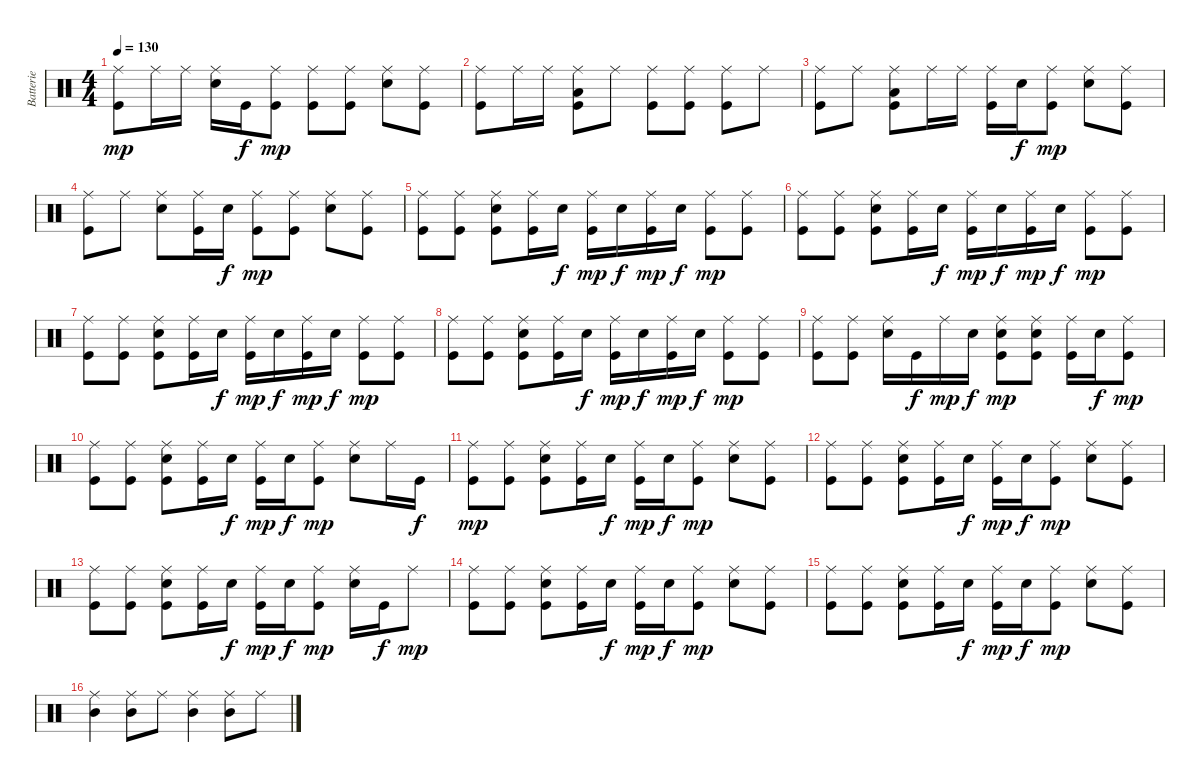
\track ("Batterie" "Batterie") {instrument percussion}
\staff {score}
\articulation defaults
\ts (4 4)
\tempo 130
\clef neutral
\ks c
("Ride (middle)" "Kick (hit)").8{dy mp} "Ride (middle)".16 "Ride (middle)".16 ("Ride (middle)" "Snare (hit) 2").16 "Kick (hit)".16{dy f} ("Ride (middle)" "Kick (hit)").8{dy mp} ("Ride (middle)" "Kick (hit)").8 ("Ride (middle)" "Kick (hit)").8 ("Ride (middle)" "Snare (hit) 2").8 ("Ride (middle)" "Kick (hit)").8 |
("Ride (middle)" "Kick (hit)").8 "Ride (middle)".16 "Ride (middle)".16 ("Ride (middle)" "Low Tom (hit)" "Kick (hit)").8 "Ride (middle)".8 ("Ride (middle)" "Kick (hit)").8 ("Ride (middle)" "Kick (hit)").8 ("Ride (middle)" "Kick (hit)").8 "Ride (middle)".8 |
("Ride (middle)" "Kick (hit)").8 "Ride (middle)".8 ("Ride (middle)" "Low Tom (hit)" "Kick (hit)").8 "Ride (middle)".16 "Ride (middle)".16 ("Ride (middle)" "Kick (hit)").16 "Snare (hit) 2".16{dy f} ("Ride (middle)" "Kick (hit)").8{dy mp} ("Ride (middle)" "Snare (hit) 2").8 ("Ride (middle)" "Kick (hit)").8 |
("Ride (middle)" "Kick (hit)").8 "Ride (middle)".8 ("Ride (middle)" "Snare (hit) 2").8 ("Ride (middle)" "Kick (hit)").16 "Snare (hit) 2".16{dy f} ("Ride (middle)" "Kick (hit)").8{dy mp} ("Ride (middle)" "Kick (hit)").8 ("Ride (middle)" "Snare (hit) 2").8 ("Ride (middle)" "Kick (hit)").8 |
("Ride (middle)" "Kick (hit)").8 ("Ride (middle)" "Kick (hit)").8 ("Ride (middle)" "Snare (hit) 2" "Kick (hit)").8 ("Ride (middle)" "Kick (hit)").16 "Snare (hit) 2".16{dy f} ("Ride (middle)" "Kick (hit)").16{dy mp} "Snare (hit) 2".16{dy f} ("Ride (middle)" "Kick (hit)").16{dy mp} "Snare (hit) 2".16{dy f} ("Ride (middle)" "Kick (hit)").8{dy mp} ("Ride (middle)" "Kick (hit)").8 |
("Ride (middle)" "Kick (hit)").8 ("Ride (middle)" "Kick (hit)").8 ("Ride (middle)" "Snare (hit) 2" "Kick (hit)").8 ("Ride (middle)" "Kick (hit)").16 "Snare (hit) 2".16{dy f} ("Ride (middle)" "Kick (hit)").16{dy mp} "Snare (hit) 2".16{dy f} ("Ride (middle)" "Kick (hit)").16{dy mp} "Snare (hit) 2".16{dy f} ("Ride (middle)" "Kick (hit)").8{dy mp} ("Ride (middle)" "Kick (hit)").8 |
("Ride (middle)" "Kick (hit)").8 ("Ride (middle)" "Kick (hit)").8 ("Ride (middle)" "Snare (hit) 2" "Kick (hit)").8 ("Ride (middle)" "Kick (hit)").16 "Snare (hit) 2".16{dy f} ("Ride (middle)" "Kick (hit)").16{dy mp} "Snare (hit) 2".16{dy f} ("Ride (middle)" "Kick (hit)").16{dy mp} "Snare (hit) 2".16{dy f} ("Ride (middle)" "Kick (hit)").8{dy mp} ("Ride (middle)" "Kick (hit)").8 |
("Ride (middle)" "Kick (hit)").8 ("Ride (middle)" "Kick (hit)").8 ("Ride (middle)" "Snare (hit) 2" "Kick (hit)").8 ("Ride (middle)" "Kick (hit)").16 "Snare (hit) 2".16{dy f} ("Ride (middle)" "Kick (hit)").16{dy mp} "Snare (hit) 2".16{dy f} ("Ride (middle)" "Kick (hit)").16{dy mp} "Snare (hit) 2".16{dy f} ("Ride (middle)" "Kick (hit)").8{dy mp} ("Ride (middle)" "Kick (hit)").8 |
("Ride (middle)" "Kick (hit)").8 ("Ride (middle)" "Kick (hit)").8 ("Ride (middle)" "Snare (hit) 2").16 "Kick (hit)".16{dy f} "Ride (middle)".16{dy mp} "Snare (hit) 2".16{dy f} ("Ride (middle)" "Snare (hit) 2" "Kick (hit)").8{dy mp} ("Ride (middle)" "Snare (hit) 2" "Kick (hit)").8 ("Ride (middle)" "Kick (hit)").16 "Snare (hit) 2".16{dy f} ("Ride (middle)" "Kick (hit)").8{dy mp} |
("Ride (middle)" "Kick (hit)").8 ("Ride (middle)" "Kick (hit)").8 ("Ride (middle)" "Snare (hit) 2" "Kick (hit)").8 ("Ride (middle)" "Kick (hit)").16 "Snare (hit) 2".16{dy f} ("Ride (middle)" "Kick (hit)").16{dy mp} "Snare (hit) 2".16{dy f} ("Ride (middle)" "Kick (hit)").8{dy mp} ("Ride (middle)" "Snare (hit) 2").8 "Ride (middle)".16 "Kick (hit)".16{dy f} |
("Ride (middle)" "Kick (hit)").8{dy mp} ("Ride (middle)" "Kick (hit)").8 ("Ride (middle)" "Snare (hit) 2" "Kick (hit)").8 ("Ride (middle)" "Kick (hit)").16 "Snare (hit) 2".16{dy f} ("Ride (middle)" "Kick (hit)").16{dy mp} "Snare (hit) 2".16{dy f} ("Ride (middle)" "Kick (hit)").8{dy mp} ("Ride (middle)" "Snare (hit) 2").8 ("Ride (middle)" "Kick (hit)").8 |
("Ride (middle)" "Kick (hit)").8 ("Ride (middle)" "Kick (hit)").8 ("Ride (middle)" "Snare (hit) 2" "Kick (hit)").8 ("Ride (middle)" "Kick (hit)").16 "Snare (hit) 2".16{dy f} ("Ride (middle)" "Kick (hit)").16{dy mp} "Snare (hit) 2".16{dy f} ("Ride (middle)" "Kick (hit)").8{dy mp} ("Ride (middle)" "Snare (hit) 2").8 ("Ride (middle)" "Kick (hit)").8 |
("Ride (middle)" "Kick (hit)").8 ("Ride (middle)" "Kick (hit)").8 ("Ride (middle)" "Snare (hit) 2" "Kick (hit)").8 ("Ride (middle)" "Kick (hit)").16 "Snare (hit) 2".16{dy f} ("Ride (middle)" "Kick (hit)").16{dy mp} "Snare (hit) 2".16{dy f} ("Ride (middle)" "Kick (hit)").8{dy mp} ("Ride (middle)" "Snare (hit) 2").16 "Kick (hit)".16{dy f} "Ride (middle)".8{dy mp} |
("Ride (middle)" "Kick (hit)").8 ("Ride (middle)" "Kick (hit)").8 ("Ride (middle)" "Snare (hit) 2" "Kick (hit)").8 ("Ride (middle)" "Kick (hit)").16 "Snare (hit) 2".16{dy f} ("Ride (middle)" "Kick (hit)").16{dy mp} "Snare (hit) 2".16{dy f} ("Ride (middle)" "Kick (hit)").8{dy mp} ("Ride (middle)" "Snare (hit) 2").8 ("Ride (middle)" "Kick (hit)").8 |
("Ride (middle)" "Kick (hit)").8 ("Ride (middle)" "Kick (hit)").8 ("Ride (middle)" "Snare (hit) 2" "Kick (hit)").8 ("Ride (middle)" "Kick (hit)").16 "Snare (hit) 2".16{dy f} ("Ride (middle)" "Kick (hit)").16{dy mp} "Snare (hit) 2".16{dy f} ("Ride (middle)" "Kick (hit)").8{dy mp} ("Ride (middle)" "Snare (hit) 2").8 ("Ride (middle)" "Kick (hit)").8 |
("Ride (middle)" "Mid Tom (hit)").4 ("Ride (middle)" "Mid Tom (hit)").8 "Ride (middle)".8 ("Ride (middle)" "Mid Tom (hit)").4 ("Ride (middle)" "Mid Tom (hit)").8 "Ride (middle)".8
